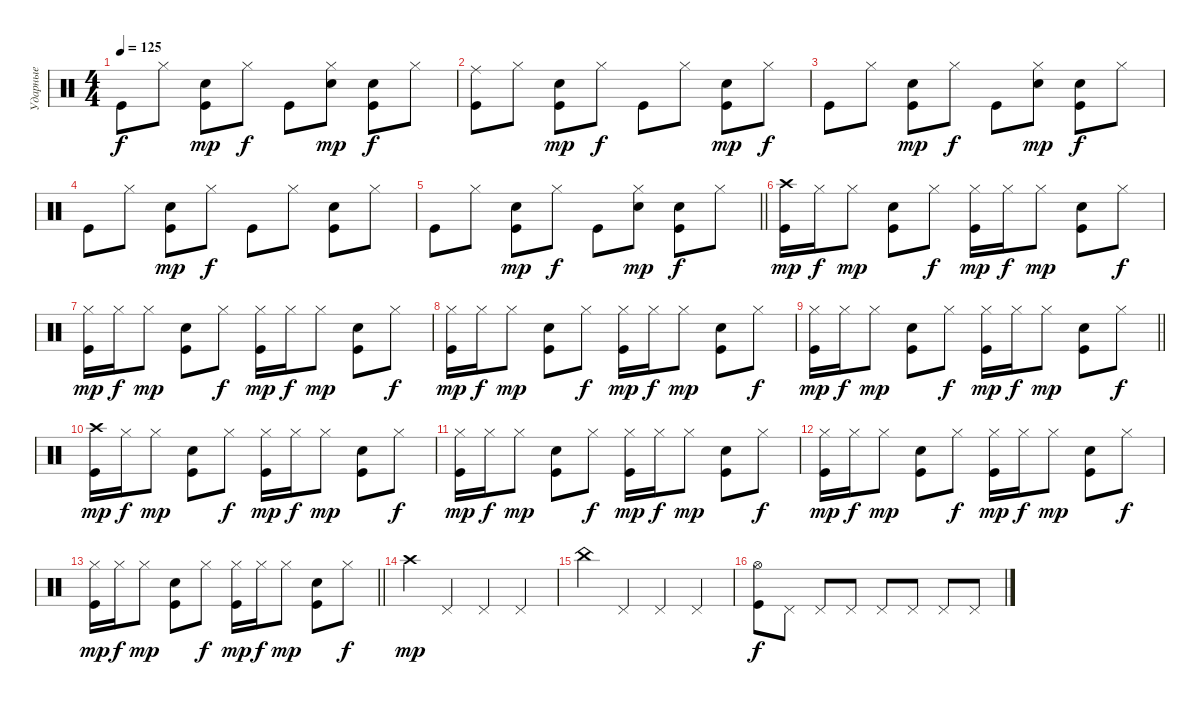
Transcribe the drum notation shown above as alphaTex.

\track ("Ударные" "Ударные") {instrument percussion}
\staff {score}
\articulation defaults
\ts (4 4)
\tempo 125
\clef neutral
\ks c "Kick (hit)".8{dy f} "Hi-Hat (closed)".8
("Hand Clap (hit)" "Kick (hit)").8{dy mp} "Hi-Hat (closed)".8{dy f} "Kick (hit)".8 ("Hand Clap (hit)" "Hi-Hat (closed)").8{dy mp} ("Hand Clap (hit)" "Kick (hit)").8{dy f} "Hi-Hat (closed)".8 |
("Ride (middle)" "Kick (hit)").8 "Hi-Hat (closed)".8 ("Hand Clap (hit)" "Kick (hit)").8{dy mp} "Hi-Hat (closed)".8{dy f} "Kick (hit)".8 "Hi-Hat (closed)".8 ("Hand Clap (hit)" "Kick (hit)").8{dy mp} "Hi-Hat (closed)".8{dy f} |
"Kick (hit)".8 "Hi-Hat (closed)".8 ("Hand Clap (hit)" "Kick (hit)").8{dy mp} "Hi-Hat (closed)".8{dy f} "Kick (hit)".8 ("Hand Clap (hit)" "Hi-Hat (closed)").8{dy mp} ("Hand Clap (hit)" "Kick (hit)").8{dy f} "Hi-Hat (closed)".8 |
"Kick (hit)".8 "Hi-Hat (closed)".8 ("Hand Clap (hit)" "Kick (hit)").8{dy mp} "Hi-Hat (closed)".8{dy f} "Kick (hit)".8 "Hi-Hat (closed)".8 ("Hand Clap (hit)" "Kick (hit)").8 "Hi-Hat (closed)".8 |
\barLineRight lightlight "Kick (hit)".8 "Hi-Hat (closed)".8
("Hand Clap (hit)" "Kick (hit)").8{dy mp} "Hi-Hat (closed)".8{dy f} "Kick (hit)".8 ("Hand Clap (hit)" "Hi-Hat (closed)").8{dy mp} ("Hand Clap (hit)" "Kick (hit)").8{dy f} "Hi-Hat (closed)".8 |
("Crash high (hit)" "Kick (hit)").16{dy mp} "Hi-Hat (closed)".16{dy f} "Hi-Hat (closed)".8{dy mp} ("Electric Snare (hit)" "Kick (hit)").8 "Hi-Hat (closed)".8{dy f} ("Hi-Hat (closed)" "Kick (hit)").16{dy mp} "Hi-Hat (closed)".16{dy f} "Hi-Hat (closed)".8{dy mp} ("Electric Snare (hit)" "Kick (hit)").8 "Hi-Hat (closed)".8{dy f} |
("Hi-Hat (closed)" "Kick (hit)").16{dy mp} "Hi-Hat (closed)".16{dy f} "Hi-Hat (closed)".8{dy mp} ("Electric Snare (hit)" "Kick (hit)").8 "Hi-Hat (closed)".8{dy f} ("Hi-Hat (closed)" "Kick (hit)").16{dy mp} "Hi-Hat (closed)".16{dy f} "Hi-Hat (closed)".8{dy mp} ("Electric Snare (hit)" "Kick (hit)").8 "Hi-Hat (closed)".8{dy f} |
("Hi-Hat (closed)" "Kick (hit)").16{dy mp} "Hi-Hat (closed)".16{dy f} "Hi-Hat (closed)".8{dy mp} ("Electric Snare (hit)" "Kick (hit)").8 "Hi-Hat (closed)".8{dy f} ("Hi-Hat (closed)" "Kick (hit)").16{dy mp} "Hi-Hat (closed)".16{dy f} "Hi-Hat (closed)".8{dy mp} ("Electric Snare (hit)" "Kick (hit)").8 "Hi-Hat (closed)".8{dy f} |
\barLineRight lightlight
("Hi-Hat (closed)" "Kick (hit)").16{dy mp} "Hi-Hat (closed)".16{dy f} "Hi-Hat (closed)".8{dy mp} ("Electric Snare (hit)" "Kick (hit)").8 "Hi-Hat (closed)".8{dy f} ("Hi-Hat (closed)" "Kick (hit)").16{dy mp} "Hi-Hat (closed)".16{dy f} "Hi-Hat (closed)".8{dy mp} ("Electric Snare (hit)" "Kick (hit)").8 "Hi-Hat (closed)".8{dy f} |
("Crash high (hit)" "Kick (hit)").16{dy mp} "Hi-Hat (closed)".16{dy f} "Hi-Hat (closed)".8{dy mp} ("Electric Snare (hit)" "Kick (hit)").8 "Hi-Hat (closed)".8{dy f} ("Hi-Hat (closed)" "Kick (hit)").16{dy mp} "Hi-Hat (closed)".16{dy f} "Hi-Hat (closed)".8{dy mp} ("Electric Snare (hit)" "Kick (hit)").8 "Hi-Hat (closed)".8{dy f} |
("Hi-Hat (closed)" "Kick (hit)").16{dy mp} "Hi-Hat (closed)".16{dy f} "Hi-Hat (closed)".8{dy mp} ("Electric Snare (hit)" "Kick (hit)").8 "Hi-Hat (closed)".8{dy f} ("Hi-Hat (closed)" "Kick (hit)").16{dy mp} "Hi-Hat (closed)".16{dy f} "Hi-Hat (closed)".8{dy mp} ("Electric Snare (hit)" "Kick (hit)").8 "Hi-Hat (closed)".8{dy f} |
("Hi-Hat (closed)" "Kick (hit)").16{dy mp} "Hi-Hat (closed)".16{dy f} "Hi-Hat (closed)".8{dy mp} ("Electric Snare (hit)" "Kick (hit)").8 "Hi-Hat (closed)".8{dy f} ("Hi-Hat (closed)" "Kick (hit)").16{dy mp} "Hi-Hat (closed)".16{dy f} "Hi-Hat (closed)".8{dy mp} ("Electric Snare (hit)" "Kick (hit)").8 "Hi-Hat (closed)".8{dy f} |
\barLineRight lightlight
("Hi-Hat (closed)" "Kick (hit)").16{dy mp} "Hi-Hat (closed)".16{dy f} "Hi-Hat (closed)".8{dy mp} ("Electric Snare (hit)" "Kick (hit)").8 "Hi-Hat (closed)".8{dy f} ("Hi-Hat (closed)" "Kick (hit)").16{dy mp} "Hi-Hat (closed)".16{dy f} "Hi-Hat (closed)".8{dy mp} ("Electric Snare (hit)" "Kick (hit)").8 "Hi-Hat (closed)".8{dy f} |
"Crash high (hit)".4{dy mp} "Pedal Hi-Hat (hit)".4 "Pedal Hi-Hat (hit)".4 "Pedal Hi-Hat (hit)".4 |
"China (hit)".4 "Pedal Hi-Hat (hit)".4 "Pedal Hi-Hat (hit)".4 "Pedal Hi-Hat (hit)".4 |
("Hi-Hat (open)" "Kick (hit)").8{dy f} "Pedal Hi-Hat (hit)".8 "Pedal Hi-Hat (hit)".8 "Pedal Hi-Hat (hit)".8 "Pedal Hi-Hat (hit)".8 "Pedal Hi-Hat (hit)".8 "Pedal Hi-Hat (hit)".8 "Pedal Hi-Hat (hit)".8
